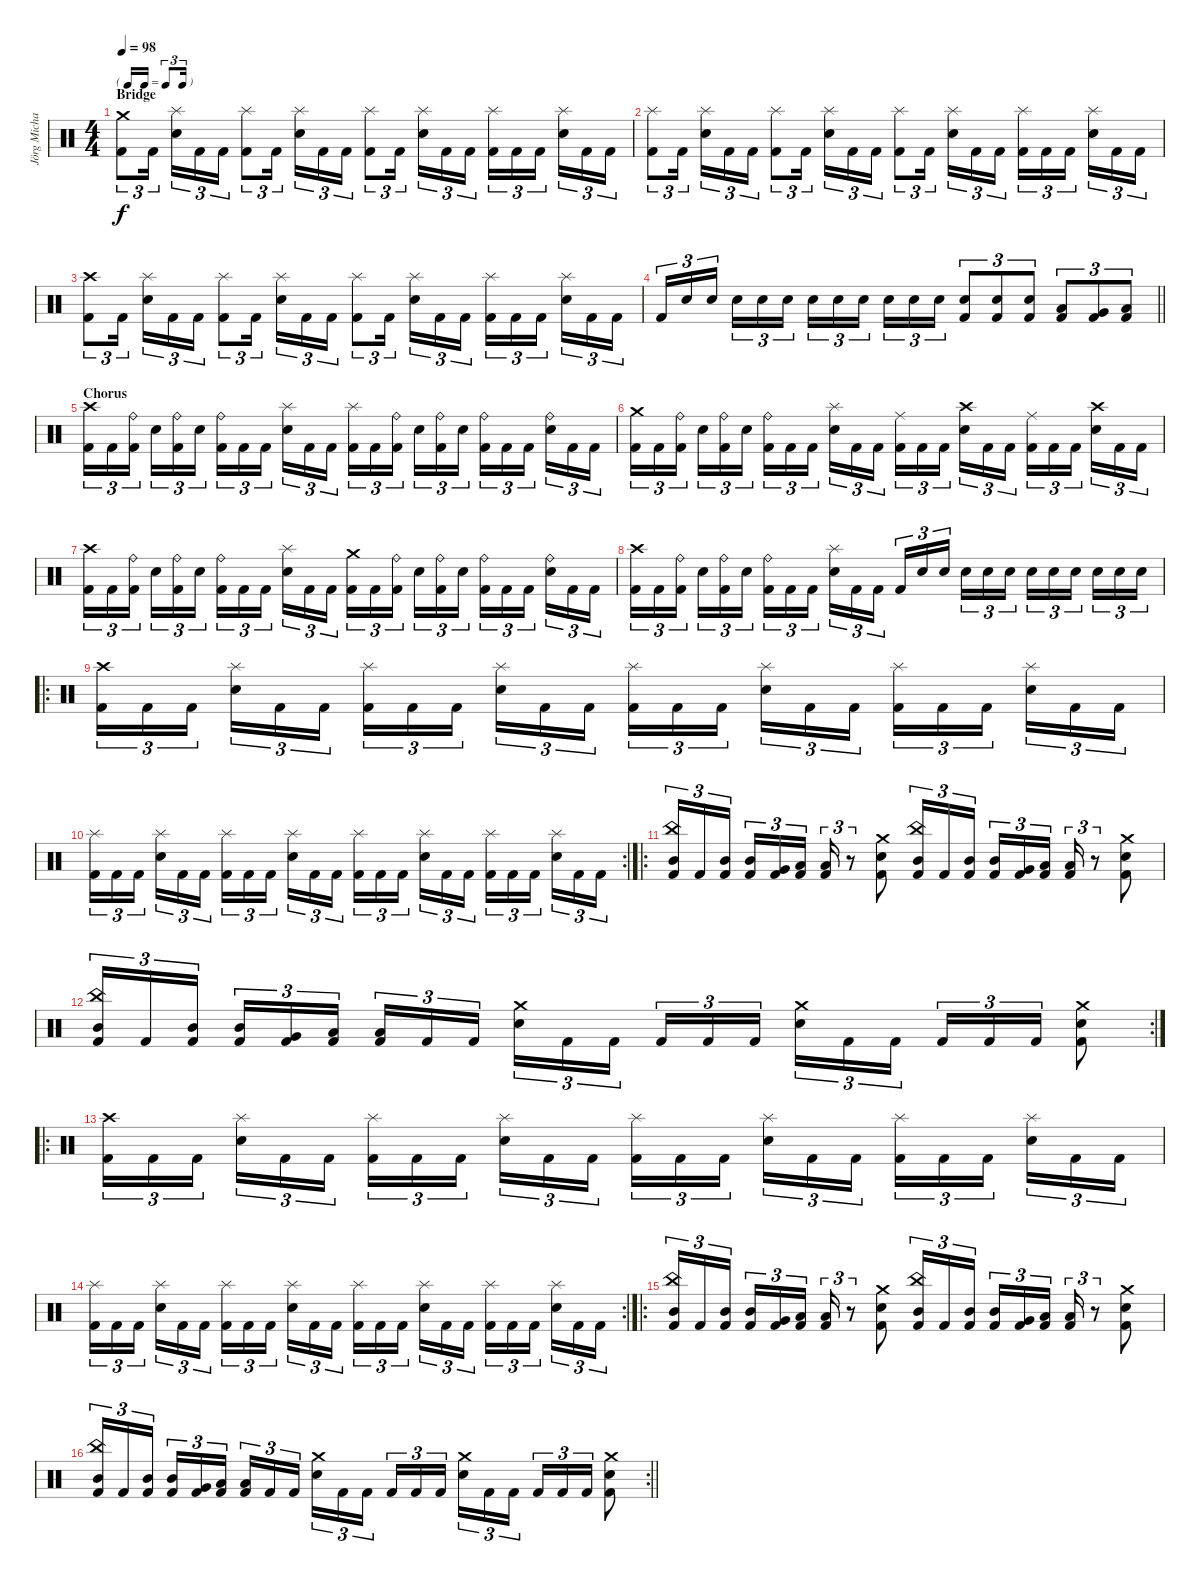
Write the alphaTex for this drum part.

\track ("Jörg Michael" "Jörg Micha") {instrument percussion}
\staff {score}
\articulation defaults
\ts (4 4)
\tf triplet16th
\section ("" "Bridge")
\tempo 98
\clef neutral
\ks c
("Crash medium (hit)" "Kick (hit) 2").8{tu (3 2) dy f} "Kick (hit) 2".16{tu (3 2) beam splitsecondary} ("Splash (hit)" "Snare (hit) 2").16{tu (3 2)} "Kick (hit) 2".16{tu (3 2)} "Kick (hit) 2".16{tu (3 2)} ("Splash (hit)" "Kick (hit) 2").8{tu (3 2)} "Kick (hit) 2".16{tu (3 2) beam splitsecondary} ("Splash (hit)" "Snare (hit) 2").16{tu (3 2)} "Kick (hit) 2".16{tu (3 2)} "Kick (hit) 2".16{tu (3 2)} ("Splash (hit)" "Kick (hit) 2").8{tu (3 2)} "Kick (hit) 2".16{tu (3 2) beam splitsecondary} ("Splash (hit)" "Snare (hit) 2").16{tu (3 2)} "Kick (hit) 2".16{tu (3 2)} "Kick (hit) 2".16{tu (3 2)} ("Splash (hit)" "Kick (hit) 2").16{tu (3 2)} "Kick (hit) 2".16{tu (3 2)} "Kick (hit) 2".16{tu (3 2) beam splitsecondary} ("Splash (hit)" "Snare (hit) 2").16{tu (3 2)} "Kick (hit) 2".16{tu (3 2)} "Kick (hit) 2".16{tu (3 2)} |
("Splash (hit)" "Kick (hit) 2").8{tu (3 2)} "Kick (hit) 2".16{tu (3 2) beam splitsecondary} ("Splash (hit)" "Snare (hit) 2").16{tu (3 2)} "Kick (hit) 2".16{tu (3 2)} "Kick (hit) 2".16{tu (3 2)} ("Splash (hit)" "Kick (hit) 2").8{tu (3 2)} "Kick (hit) 2".16{tu (3 2) beam splitsecondary} ("Splash (hit)" "Snare (hit) 2").16{tu (3 2)} "Kick (hit) 2".16{tu (3 2)} "Kick (hit) 2".16{tu (3 2)} ("Splash (hit)" "Kick (hit) 2").8{tu (3 2)} "Kick (hit) 2".16{tu (3 2) beam splitsecondary} ("Splash (hit)" "Snare (hit) 2").16{tu (3 2)} "Kick (hit) 2".16{tu (3 2)} "Kick (hit) 2".16{tu (3 2)} ("Splash (hit)" "Kick (hit) 2").16{tu (3 2)} "Kick (hit) 2".16{tu (3 2)} "Kick (hit) 2".16{tu (3 2) beam splitsecondary} ("Splash (hit)" "Snare (hit) 2").16{tu (3 2)} "Kick (hit) 2".16{tu (3 2)} "Kick (hit) 2".16{tu (3 2)} |
("Crash high (hit)" "Kick (hit) 2").8{tu (3 2)} "Kick (hit) 2".16{tu (3 2) beam splitsecondary} ("Splash (hit)" "Snare (hit) 2").16{tu (3 2)} "Kick (hit) 2".16{tu (3 2)} "Kick (hit) 2".16{tu (3 2)} ("Splash (hit)" "Kick (hit) 2").8{tu (3 2)} "Kick (hit) 2".16{tu (3 2) beam splitsecondary} ("Splash (hit)" "Snare (hit) 2").16{tu (3 2)} "Kick (hit) 2".16{tu (3 2)} "Kick (hit) 2".16{tu (3 2)} ("Splash (hit)" "Kick (hit) 2").8{tu (3 2)} "Kick (hit) 2".16{tu (3 2) beam splitsecondary} ("Splash (hit)" "Snare (hit) 2").16{tu (3 2)} "Kick (hit) 2".16{tu (3 2)} "Kick (hit) 2".16{tu (3 2)} ("Splash (hit)" "Kick (hit) 2").16{tu (3 2)} "Kick (hit) 2".16{tu (3 2)} "Kick (hit) 2".16{tu (3 2) beam splitsecondary} ("Splash (hit)" "Snare (hit) 2").16{tu (3 2)} "Kick (hit) 2".16{tu (3 2)} "Kick (hit) 2".16{tu (3 2)} |
\barLineRight lightlight "Kick (hit) 2".16{tu (3 2)} "Snare (hit) 2".16{tu (3 2)} "Snare (hit) 2".16{tu (3 2) beam splitsecondary} "Snare (hit) 2".16{tu (3 2)} "Snare (hit) 2".16{tu (3 2)} "Snare (hit) 2".16{tu (3 2)} "Snare (hit) 2".16{tu (3 2)} "Snare (hit) 2".16{tu (3 2)} "Snare (hit) 2".16{tu (3 2) beam splitsecondary} "Snare (hit) 2".16{tu (3 2)} "Snare (hit) 2".16{tu (3 2)} "Snare (hit) 2".16{tu (3 2)}
("Snare (hit) 2" "Kick (hit) 2").8{tu (3 2)} ("Snare (hit) 2" "Kick (hit) 2").8{tu (3 2)} ("Snare (hit) 2" "Kick (hit) 2").8{tu (3 2)} ("Low Tom (hit)" "Kick (hit) 2").8{tu (3 2)} ("Very Low Tom (hit)" "Kick (hit) 2").8{tu (3 2)} ("Low Floor Tom (hit)" "Kick (hit) 2").8{tu (3 2)} |
\section ("" "Chorus")
("Crash high (hit)" "Kick (hit) 2").16{tu (3 2)} "Kick (hit) 2".16{tu (3 2)} ("Ride (bell)" "Kick (hit) 2").16{tu (3 2) beam splitsecondary} "Snare (hit) 2".16{tu (3 2)} ("Ride (bell)" "Kick (hit) 2").16{tu (3 2)} "Snare (hit) 2".16{tu (3 2)} ("Ride (bell)" "Kick (hit) 2").16{tu (3 2)} "Kick (hit) 2".16{tu (3 2)} "Kick (hit) 2".16{tu (3 2) beam splitsecondary} ("Splash (hit)" "Snare (hit) 2").16{tu (3 2)} "Kick (hit) 2".16{tu (3 2)} "Kick (hit) 2".16{tu (3 2)} ("Splash (hit)" "Kick (hit) 2").16{tu (3 2)} "Kick (hit) 2".16{tu (3 2)} ("Ride (bell)" "Kick (hit) 2").16{tu (3 2) beam splitsecondary} "Snare (hit) 2".16{tu (3 2)} ("Ride (bell)" "Kick (hit) 2").16{tu (3 2)} "Snare (hit) 2".16{tu (3 2)} ("Ride (bell)" "Kick (hit) 2").16{tu (3 2)} "Kick (hit) 2".16{tu (3 2)} "Kick (hit) 2".16{tu (3 2) beam splitsecondary} ("Ride (bell)" "Snare (hit) 2").16{tu (3 2)} "Kick (hit) 2".16{tu (3 2)} "Kick (hit) 2".16{tu (3 2)} |
("Crash medium (hit)" "Kick (hit) 2").16{tu (3 2)} "Kick (hit) 2".16{tu (3 2)} ("Ride (bell)" "Kick (hit) 2").16{tu (3 2) beam splitsecondary} "Snare (hit) 2".16{tu (3 2)} ("Ride (bell)" "Kick (hit) 2").16{tu (3 2)} "Snare (hit) 2".16{tu (3 2)} ("Ride (bell)" "Kick (hit) 2").16{tu (3 2)} "Kick (hit) 2".16{tu (3 2)} "Kick (hit) 2".16{tu (3 2) beam splitsecondary} ("Splash (hit)" "Snare (hit) 2").16{tu (3 2)} "Kick (hit) 2".16{tu (3 2)} "Kick (hit) 2".16{tu (3 2)} ("Ride (middle)" "Kick (hit) 2").16{tu (3 2)} "Kick (hit) 2".16{tu (3 2)} "Kick (hit) 2".16{tu (3 2) beam splitsecondary} ("Crash high (hit)" "Snare (hit) 2").16{tu (3 2)} "Kick (hit) 2".16{tu (3 2)} "Kick (hit) 2".16{tu (3 2)} ("Ride (middle)" "Kick (hit) 2").16{tu (3 2)} "Kick (hit) 2".16{tu (3 2)} "Kick (hit) 2".16{tu (3 2) beam splitsecondary} ("Crash high (hit)" "Snare (hit) 2").16{tu (3 2)} "Kick (hit) 2".16{tu (3 2)} "Kick (hit) 2".16{tu (3 2)} |
("Crash high (hit)" "Kick (hit) 2").16{tu (3 2)} "Kick (hit) 2".16{tu (3 2)} ("Ride (bell)" "Kick (hit) 2").16{tu (3 2) beam splitsecondary} "Snare (hit) 2".16{tu (3 2)} ("Ride (bell)" "Kick (hit) 2").16{tu (3 2)} "Snare (hit) 2".16{tu (3 2)} ("Ride (bell)" "Kick (hit) 2").16{tu (3 2)} "Kick (hit) 2".16{tu (3 2)} "Kick (hit) 2".16{tu (3 2) beam splitsecondary} ("Splash (hit)" "Snare (hit) 2").16{tu (3 2)} "Kick (hit) 2".16{tu (3 2)} "Kick (hit) 2".16{tu (3 2)} ("Crash medium (hit)" "Kick (hit) 2").16{tu (3 2)} "Kick (hit) 2".16{tu (3 2)} ("Ride (bell)" "Kick (hit) 2").16{tu (3 2) beam splitsecondary} "Snare (hit) 2".16{tu (3 2)} ("Ride (bell)" "Kick (hit) 2").16{tu (3 2)} "Snare (hit) 2".16{tu (3 2)} ("Ride (bell)" "Kick (hit) 2").16{tu (3 2)} "Kick (hit) 2".16{tu (3 2)} "Kick (hit) 2".16{tu (3 2) beam splitsecondary} ("Ride (bell)" "Snare (hit) 2").16{tu (3 2)} "Kick (hit) 2".16{tu (3 2)} "Kick (hit) 2".16{tu (3 2)} |
("Crash high (hit)" "Kick (hit) 2").16{tu (3 2)} "Kick (hit) 2".16{tu (3 2)} ("Ride (bell)" "Kick (hit) 2").16{tu (3 2) beam splitsecondary} "Snare (hit) 2".16{tu (3 2)} ("Ride (bell)" "Kick (hit) 2").16{tu (3 2)} "Snare (hit) 2".16{tu (3 2)} ("Ride (bell)" "Kick (hit) 2").16{tu (3 2)} "Kick (hit) 2".16{tu (3 2)} "Kick (hit) 2".16{tu (3 2) beam splitsecondary} ("Splash (hit)" "Snare (hit) 2").16{tu (3 2)} "Kick (hit) 2".16{tu (3 2)} "Kick (hit) 2".16{tu (3 2)} "Kick (hit) 2".16{tu (3 2)} "Snare (hit) 2".16{tu (3 2)} "Snare (hit) 2".16{tu (3 2) beam splitsecondary} "Snare (hit) 2".16{tu (3 2)} "Snare (hit) 2".16{tu (3 2)} "Snare (hit) 2".16{tu (3 2)} "Snare (hit) 2".16{tu (3 2)} "Snare (hit) 2".16{tu (3 2)} "Snare (hit) 2".16{tu (3 2) beam splitsecondary} "Snare (hit) 2".16{tu (3 2)} "Snare (hit) 2".16{tu (3 2)} "Snare (hit) 2".16{tu (3 2)} |
\ro
("Crash high (hit)" "Kick (hit) 2").16{tu (3 2)} "Kick (hit) 2".16{tu (3 2)} "Kick (hit) 2".16{tu (3 2) beam splitsecondary} ("Splash (hit)" "Snare (hit) 2").16{tu (3 2)} "Kick (hit) 2".16{tu (3 2)} "Kick (hit) 2".16{tu (3 2)} ("Splash (hit)" "Kick (hit) 2").16{tu (3 2)} "Kick (hit) 2".16{tu (3 2)} "Kick (hit) 2".16{tu (3 2) beam splitsecondary} ("Splash (hit)" "Snare (hit) 2").16{tu (3 2)} "Kick (hit) 2".16{tu (3 2)} "Kick (hit) 2".16{tu (3 2)} ("Splash (hit)" "Kick (hit) 2").16{tu (3 2)} "Kick (hit) 2".16{tu (3 2)} "Kick (hit) 2".16{tu (3 2) beam splitsecondary} ("Splash (hit)" "Snare (hit) 2").16{tu (3 2)} "Kick (hit) 2".16{tu (3 2)} "Kick (hit) 2".16{tu (3 2)} ("Splash (hit)" "Kick (hit) 2").16{tu (3 2)} "Kick (hit) 2".16{tu (3 2)} "Kick (hit) 2".16{tu (3 2) beam splitsecondary} ("Splash (hit)" "Snare (hit) 2").16{tu (3 2)} "Kick (hit) 2".16{tu (3 2)} "Kick (hit) 2".16{tu (3 2)} |
\rc 2
("Splash (hit)" "Kick (hit) 2").16{tu (3 2)} "Kick (hit) 2".16{tu (3 2)} "Kick (hit) 2".16{tu (3 2) beam splitsecondary} ("Splash (hit)" "Snare (hit) 2").16{tu (3 2)} "Kick (hit) 2".16{tu (3 2)} "Kick (hit) 2".16{tu (3 2)} ("Splash (hit)" "Kick (hit) 2").16{tu (3 2)} "Kick (hit) 2".16{tu (3 2)} "Kick (hit) 2".16{tu (3 2) beam splitsecondary} ("Splash (hit)" "Snare (hit) 2").16{tu (3 2)} "Kick (hit) 2".16{tu (3 2)} "Kick (hit) 2".16{tu (3 2)} ("Splash (hit)" "Kick (hit) 2").16{tu (3 2)} "Kick (hit) 2".16{tu (3 2)} "Kick (hit) 2".16{tu (3 2) beam splitsecondary} ("Splash (hit)" "Snare (hit) 2").16{tu (3 2)} "Kick (hit) 2".16{tu (3 2)} "Kick (hit) 2".16{tu (3 2)} ("Splash (hit)" "Kick (hit) 2").16{tu (3 2)} "Kick (hit) 2".16{tu (3 2)} "Kick (hit) 2".16{tu (3 2) beam splitsecondary} ("Splash (hit)" "Snare (hit) 2").16{tu (3 2)} "Kick (hit) 2".16{tu (3 2)} "Kick (hit) 2".16{tu (3 2)} |
\ro
("China (hit)" "Mid Tom (hit)" "Kick (hit) 2").16{tu (3 2)} "Kick (hit) 2".16{tu (3 2)} ("Mid Tom (hit)" "Kick (hit) 2").16{tu (3 2) beam splitsecondary} ("Mid Tom (hit)" "Kick (hit) 2").16{tu (3 2)} ("Very Low Tom (hit)" "Kick (hit) 2").16{tu (3 2)} ("Low Floor Tom (hit)" "Kick (hit) 2").16{tu (3 2)} ("Low Floor Tom (hit)" "Kick (hit) 2").16{tu (3 2)} r.8{tu (3 2)} ("Crash medium (hit)" "Snare (hit) 2" "Kick (hit) 2").8 ("China (hit)" "Mid Tom (hit)" "Kick (hit) 2").16{tu (3 2)} "Kick (hit) 2".16{tu (3 2)} ("Mid Tom (hit)" "Kick (hit) 2").16{tu (3 2) beam splitsecondary} ("Mid Tom (hit)" "Kick (hit) 2").16{tu (3 2)} ("Very Low Tom (hit)" "Kick (hit) 2").16{tu (3 2)} ("Low Floor Tom (hit)" "Kick (hit) 2").16{tu (3 2)} ("Low Floor Tom (hit)" "Kick (hit) 2").16{tu (3 2)} r.8{tu (3 2)} ("Crash medium (hit)" "Snare (hit) 2" "Kick (hit) 2").8 |
\rc 2
("China (hit)" "Mid Tom (hit)" "Kick (hit) 2").16{tu (3 2)} "Kick (hit) 2".16{tu (3 2)} ("Mid Tom (hit)" "Kick (hit) 2").16{tu (3 2) beam splitsecondary} ("Mid Tom (hit)" "Kick (hit) 2").16{tu (3 2)} ("Very Low Tom (hit)" "Kick (hit) 2").16{tu (3 2)} ("Low Floor Tom (hit)" "Kick (hit) 2").16{tu (3 2)} ("Low Floor Tom (hit)" "Kick (hit) 2").16{tu (3 2)} "Kick (hit) 2".16{tu (3 2)} "Kick (hit) 2".16{tu (3 2) beam splitsecondary} ("Crash medium (hit)" "Snare (hit) 2").16{tu (3 2)} "Kick (hit) 2".16{tu (3 2)} "Kick (hit) 2".16{tu (3 2)} "Kick (hit) 2".16{tu (3 2)} "Kick (hit) 2".16{tu (3 2)} "Kick (hit) 2".16{tu (3 2) beam splitsecondary} ("Crash medium (hit)" "Snare (hit) 2").16{tu (3 2)} "Kick (hit) 2".16{tu (3 2)} "Kick (hit) 2".16{tu (3 2)} "Kick (hit) 2".16{tu (3 2)} "Kick (hit) 2".16{tu (3 2)} "Kick (hit) 2".16{tu (3 2)} ("Crash medium (hit)" "Snare (hit) 2" "Kick (hit) 2").8 |
\ro
("Crash high (hit)" "Kick (hit) 2").16{tu (3 2)} "Kick (hit) 2".16{tu (3 2)} "Kick (hit) 2".16{tu (3 2) beam splitsecondary} ("Splash (hit)" "Snare (hit) 2").16{tu (3 2)} "Kick (hit) 2".16{tu (3 2)} "Kick (hit) 2".16{tu (3 2)} ("Splash (hit)" "Kick (hit) 2").16{tu (3 2)} "Kick (hit) 2".16{tu (3 2)} "Kick (hit) 2".16{tu (3 2) beam splitsecondary} ("Splash (hit)" "Snare (hit) 2").16{tu (3 2)} "Kick (hit) 2".16{tu (3 2)} "Kick (hit) 2".16{tu (3 2)} ("Splash (hit)" "Kick (hit) 2").16{tu (3 2)} "Kick (hit) 2".16{tu (3 2)} "Kick (hit) 2".16{tu (3 2) beam splitsecondary} ("Splash (hit)" "Snare (hit) 2").16{tu (3 2)} "Kick (hit) 2".16{tu (3 2)} "Kick (hit) 2".16{tu (3 2)} ("Splash (hit)" "Kick (hit) 2").16{tu (3 2)} "Kick (hit) 2".16{tu (3 2)} "Kick (hit) 2".16{tu (3 2) beam splitsecondary} ("Splash (hit)" "Snare (hit) 2").16{tu (3 2)} "Kick (hit) 2".16{tu (3 2)} "Kick (hit) 2".16{tu (3 2)} |
\rc 2
("Splash (hit)" "Kick (hit) 2").16{tu (3 2)} "Kick (hit) 2".16{tu (3 2)} "Kick (hit) 2".16{tu (3 2) beam splitsecondary} ("Splash (hit)" "Snare (hit) 2").16{tu (3 2)} "Kick (hit) 2".16{tu (3 2)} "Kick (hit) 2".16{tu (3 2)} ("Splash (hit)" "Kick (hit) 2").16{tu (3 2)} "Kick (hit) 2".16{tu (3 2)} "Kick (hit) 2".16{tu (3 2) beam splitsecondary} ("Splash (hit)" "Snare (hit) 2").16{tu (3 2)} "Kick (hit) 2".16{tu (3 2)} "Kick (hit) 2".16{tu (3 2)} ("Splash (hit)" "Kick (hit) 2").16{tu (3 2)} "Kick (hit) 2".16{tu (3 2)} "Kick (hit) 2".16{tu (3 2) beam splitsecondary} ("Splash (hit)" "Snare (hit) 2").16{tu (3 2)} "Kick (hit) 2".16{tu (3 2)} "Kick (hit) 2".16{tu (3 2)} ("Splash (hit)" "Kick (hit) 2").16{tu (3 2)} "Kick (hit) 2".16{tu (3 2)} "Kick (hit) 2".16{tu (3 2) beam splitsecondary} ("Splash (hit)" "Snare (hit) 2").16{tu (3 2)} "Kick (hit) 2".16{tu (3 2)} "Kick (hit) 2".16{tu (3 2)} |
\ro
("China (hit)" "Mid Tom (hit)" "Kick (hit) 2").16{tu (3 2)} "Kick (hit) 2".16{tu (3 2)} ("Mid Tom (hit)" "Kick (hit) 2").16{tu (3 2) beam splitsecondary} ("Mid Tom (hit)" "Kick (hit) 2").16{tu (3 2)} ("Very Low Tom (hit)" "Kick (hit) 2").16{tu (3 2)} ("Low Floor Tom (hit)" "Kick (hit) 2").16{tu (3 2)} ("Low Floor Tom (hit)" "Kick (hit) 2").16{tu (3 2)} r.8{tu (3 2)} ("Crash medium (hit)" "Snare (hit) 2" "Kick (hit) 2").8 ("China (hit)" "Mid Tom (hit)" "Kick (hit) 2").16{tu (3 2)} "Kick (hit) 2".16{tu (3 2)} ("Mid Tom (hit)" "Kick (hit) 2").16{tu (3 2) beam splitsecondary} ("Mid Tom (hit)" "Kick (hit) 2").16{tu (3 2)} ("Very Low Tom (hit)" "Kick (hit) 2").16{tu (3 2)} ("Low Floor Tom (hit)" "Kick (hit) 2").16{tu (3 2)} ("Low Floor Tom (hit)" "Kick (hit) 2").16{tu (3 2)} r.8{tu (3 2)} ("Crash medium (hit)" "Snare (hit) 2" "Kick (hit) 2").8 |
\rc 2
\barLineRight lightlight
("China (hit)" "Mid Tom (hit)" "Kick (hit) 2").16{tu (3 2)} "Kick (hit) 2".16{tu (3 2)} ("Mid Tom (hit)" "Kick (hit) 2").16{tu (3 2) beam splitsecondary} ("Mid Tom (hit)" "Kick (hit) 2").16{tu (3 2)} ("Very Low Tom (hit)" "Kick (hit) 2").16{tu (3 2)} ("Low Floor Tom (hit)" "Kick (hit) 2").16{tu (3 2)} ("Low Floor Tom (hit)" "Kick (hit) 2").16{tu (3 2)} "Kick (hit) 2".16{tu (3 2)} "Kick (hit) 2".16{tu (3 2) beam splitsecondary} ("Crash medium (hit)" "Snare (hit) 2").16{tu (3 2)} "Kick (hit) 2".16{tu (3 2)} "Kick (hit) 2".16{tu (3 2)} "Kick (hit) 2".16{tu (3 2)} "Kick (hit) 2".16{tu (3 2)} "Kick (hit) 2".16{tu (3 2) beam splitsecondary} ("Crash medium (hit)" "Snare (hit) 2").16{tu (3 2)} "Kick (hit) 2".16{tu (3 2)} "Kick (hit) 2".16{tu (3 2)} "Kick (hit) 2".16{tu (3 2)} "Kick (hit) 2".16{tu (3 2)} "Kick (hit) 2".16{tu (3 2)} ("Crash medium (hit)" "Snare (hit) 2" "Kick (hit) 2").8
